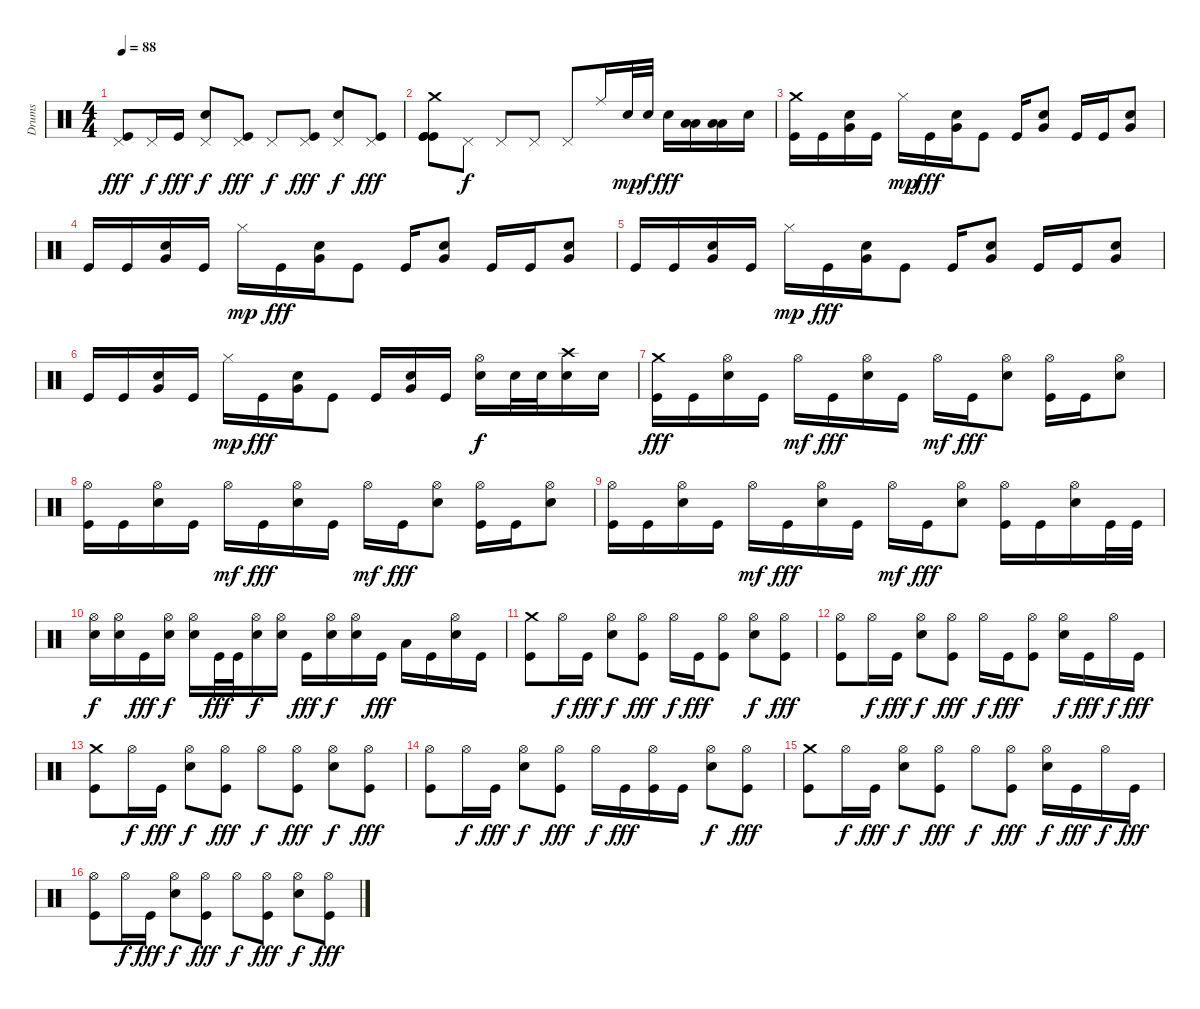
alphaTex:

\track ("Drums" "Drums") {instrument percussion}
\staff {score}
\articulation defaults
\ts (4 4)
\tempo 88
\clef neutral
\ks c
("Pedal Hi-Hat (hit)" "Kick (hit)").8{dy fff} "Pedal Hi-Hat (hit)".16{dy f} "Kick (hit)".16{dy fff} ("Pedal Hi-Hat (hit)" "Snare (hit) 2").8{dy f} ("Pedal Hi-Hat (hit)" "Kick (hit)").8{dy fff} "Pedal Hi-Hat (hit)".8{dy f} ("Pedal Hi-Hat (hit)" "Kick (hit)").8{dy fff} ("Pedal Hi-Hat (hit)" "Snare (hit) 2").8{dy f} ("Pedal Hi-Hat (hit)" "Kick (hit)").8{dy fff} |
("Crash medium (hit)" "Kick (hit)" "Kick (hit)" "Kick (hit)").8 "Pedal Hi-Hat (hit)".8{dy f} "Pedal Hi-Hat (hit)".8 "Pedal Hi-Hat (hit)".8 "Pedal Hi-Hat (hit)".8 "Ride (middle)".16 "Snare (hit) 2".32{dy mp} "Snare (hit) 2".32{dy f} "Snare (hit) 2".16{dy fff} ("Low Tom (hit)" "Low Tom (hit)").16 ("Low Floor Tom (hit)" "Low Floor Tom (hit)").16 "Snare (hit) 2".16 |
("Crash medium (hit)" "Kick (hit)").16 "Kick (hit)".16 ("Snare (hit) 2" "Very Low Tom (hit)").16 "Kick (hit)".16 "Hi-Hat (closed)".16{dy mp} "Kick (hit)".16{dy fff} ("Snare (hit) 2" "Very Low Tom (hit)").16 "Kick (hit)".8 "Kick (hit)".16 ("Snare (hit) 2" "Very Low Tom (hit)").8 "Kick (hit)".16 "Kick (hit)".16 ("Snare (hit) 2" "Very Low Tom (hit)").8 |
"Kick (hit)".16 "Kick (hit)".16 ("Snare (hit) 2" "Very Low Tom (hit)").16 "Kick (hit)".16 "Hi-Hat (closed)".16{dy mp} "Kick (hit)".16{dy fff} ("Snare (hit) 2" "Very Low Tom (hit)").16 "Kick (hit)".8 "Kick (hit)".16 ("Snare (hit) 2" "Very Low Tom (hit)").8 "Kick (hit)".16 "Kick (hit)".16 ("Snare (hit) 2" "Very Low Tom (hit)").8 |
"Kick (hit)".16 "Kick (hit)".16 ("Snare (hit) 2" "Very Low Tom (hit)").16 "Kick (hit)".16 "Hi-Hat (closed)".16{dy mp} "Kick (hit)".16{dy fff} ("Snare (hit) 2" "Very Low Tom (hit)").16 "Kick (hit)".8 "Kick (hit)".16 ("Snare (hit) 2" "Very Low Tom (hit)").8 "Kick (hit)".16 "Kick (hit)".16 ("Snare (hit) 2" "Very Low Tom (hit)").8 |
"Kick (hit)".16 "Kick (hit)".16 ("Snare (hit) 2" "Very Low Tom (hit)").16 "Kick (hit)".16 "Hi-Hat (closed)".16{dy mp} "Kick (hit)".16{dy fff} ("Snare (hit) 2" "Very Low Tom (hit)").16 "Kick (hit)".8 "Kick (hit)".16 ("Snare (hit) 2" "Very Low Tom (hit)").16 "Kick (hit)".16 ("Hi-Hat (open)" "Snare (hit) 2").16{dy f} "Snare (hit) 2".32 "Snare (hit) 2".32 ("Crash high (hit)" "Snare (hit) 2").16 "Snare (hit) 2".16 |
("Crash medium (hit)" "Kick (hit)").16{dy fff} "Kick (hit)".16 ("Hi-Hat (open)" "Snare (hit) 2").16 "Kick (hit)".16 "Hi-Hat (open)".16{dy mf} "Kick (hit)".16{dy fff} ("Hi-Hat (open)" "Snare (hit) 2").16 "Kick (hit)".16 "Hi-Hat (open)".16{dy mf} "Kick (hit)".16{dy fff} ("Hi-Hat (open)" "Snare (hit) 2").8 ("Hi-Hat (open)" "Kick (hit)").16 "Kick (hit)".16 ("Hi-Hat (open)" "Snare (hit) 2").8 |
("Hi-Hat (open)" "Kick (hit)").16 "Kick (hit)".16 ("Hi-Hat (open)" "Snare (hit) 2").16 "Kick (hit)".16 "Hi-Hat (open)".16{dy mf} "Kick (hit)".16{dy fff} ("Hi-Hat (open)" "Snare (hit) 2").16 "Kick (hit)".16 "Hi-Hat (open)".16{dy mf} "Kick (hit)".16{dy fff} ("Hi-Hat (open)" "Snare (hit) 2").8 ("Hi-Hat (open)" "Kick (hit)").16 "Kick (hit)".16 ("Hi-Hat (open)" "Snare (hit) 2").8 |
("Hi-Hat (open)" "Kick (hit)").16 "Kick (hit)".16 ("Hi-Hat (open)" "Snare (hit) 2").16 "Kick (hit)".16 "Hi-Hat (open)".16{dy mf} "Kick (hit)".16{dy fff} ("Hi-Hat (open)" "Snare (hit) 2").16 "Kick (hit)".16 "Hi-Hat (open)".16{dy mf} "Kick (hit)".16{dy fff} ("Hi-Hat (open)" "Snare (hit) 2").8 ("Hi-Hat (open)" "Kick (hit)").16 "Kick (hit)".16 ("Hi-Hat (open)" "Snare (hit) 2").16 "Kick (hit)".32 "Kick (hit)".32 |
("Hi-Hat (open)" "Snare (hit) 2").16{dy f} ("Hi-Hat (open)" "Snare (hit) 2").16 "Kick (hit)".16{dy fff} ("Hi-Hat (open)" "Snare (hit) 2").16{dy f} ("Hi-Hat (open)" "Snare (hit) 2").16 "Kick (hit)".32{dy fff} "Kick (hit)".32 ("Hi-Hat (open)" "Snare (hit) 2").16{dy f} ("Hi-Hat (open)" "Snare (hit) 2").16 "Kick (hit)".16{dy fff} ("Hi-Hat (open)" "Snare (hit) 2").16{dy f} ("Hi-Hat (open)" "Snare (hit) 2").16 "Kick (hit)".16{dy fff} "Low Tom (hit)".16 "Kick (hit)".16 ("Hi-Hat (open)" "Snare (hit) 2").16 "Kick (hit)".16 |
("Crash medium (hit)" "Kick (hit)").8 "Hi-Hat (open)".16{dy f} "Kick (hit)".16{dy fff} ("Hi-Hat (open)" "Snare (hit) 2").8{dy f} ("Hi-Hat (open)" "Kick (hit)").8{dy fff} "Hi-Hat (open)".16{dy f} "Kick (hit)".16{dy fff} ("Hi-Hat (open)" "Kick (hit)").8 ("Hi-Hat (open)" "Snare (hit) 2").8{dy f} ("Hi-Hat (open)" "Kick (hit)").8{dy fff} |
("Hi-Hat (open)" "Kick (hit)").8 "Hi-Hat (open)".16{dy f} "Kick (hit)".16{dy fff} ("Hi-Hat (open)" "Snare (hit) 2").8{dy f} ("Hi-Hat (open)" "Kick (hit)").8{dy fff} "Hi-Hat (open)".16{dy f} "Kick (hit)".16{dy fff} ("Hi-Hat (open)" "Kick (hit)").8 ("Hi-Hat (open)" "Snare (hit) 2").16{dy f} "Kick (hit)".16{dy fff} "Hi-Hat (open)".16{dy f} "Kick (hit)".16{dy fff} |
("Crash medium (hit)" "Kick (hit)").8 "Hi-Hat (open)".16{dy f} "Kick (hit)".16{dy fff} ("Hi-Hat (open)" "Snare (hit) 2").8{dy f} ("Hi-Hat (open)" "Kick (hit)").8{dy fff} "Hi-Hat (open)".8{dy f} ("Hi-Hat (open)" "Kick (hit)").8{dy fff} ("Hi-Hat (open)" "Snare (hit) 2").8{dy f} ("Hi-Hat (open)" "Kick (hit)").8{dy fff} |
("Hi-Hat (open)" "Kick (hit)").8 "Hi-Hat (open)".16{dy f} "Kick (hit)".16{dy fff} ("Hi-Hat (open)" "Snare (hit) 2").8{dy f} ("Hi-Hat (open)" "Kick (hit)").8{dy fff} "Hi-Hat (open)".16{dy f} "Kick (hit)".16{dy fff} ("Hi-Hat (open)" "Kick (hit)").16 "Kick (hit)".16 ("Hi-Hat (open)" "Snare (hit) 2").8{dy f} ("Hi-Hat (open)" "Kick (hit)").8{dy fff} |
("Crash medium (hit)" "Kick (hit)").8 "Hi-Hat (open)".16{dy f} "Kick (hit)".16{dy fff} ("Hi-Hat (open)" "Snare (hit) 2").8{dy f} ("Hi-Hat (open)" "Kick (hit)").8{dy fff} "Hi-Hat (open)".8{dy f} ("Hi-Hat (open)" "Kick (hit)").8{dy fff} ("Hi-Hat (open)" "Snare (hit) 2").16{dy f} "Kick (hit)".16{dy fff} "Hi-Hat (open)".16{dy f} "Kick (hit)".16{dy fff} |
("Hi-Hat (open)" "Kick (hit)").8 "Hi-Hat (open)".16{dy f} "Kick (hit)".16{dy fff} ("Hi-Hat (open)" "Snare (hit) 2").8{dy f} ("Hi-Hat (open)" "Kick (hit)").8{dy fff} "Hi-Hat (open)".8{dy f} ("Hi-Hat (open)" "Kick (hit)").8{dy fff} ("Hi-Hat (open)" "Snare (hit) 2").8{dy f} ("Hi-Hat (open)" "Kick (hit)").8{dy fff}
